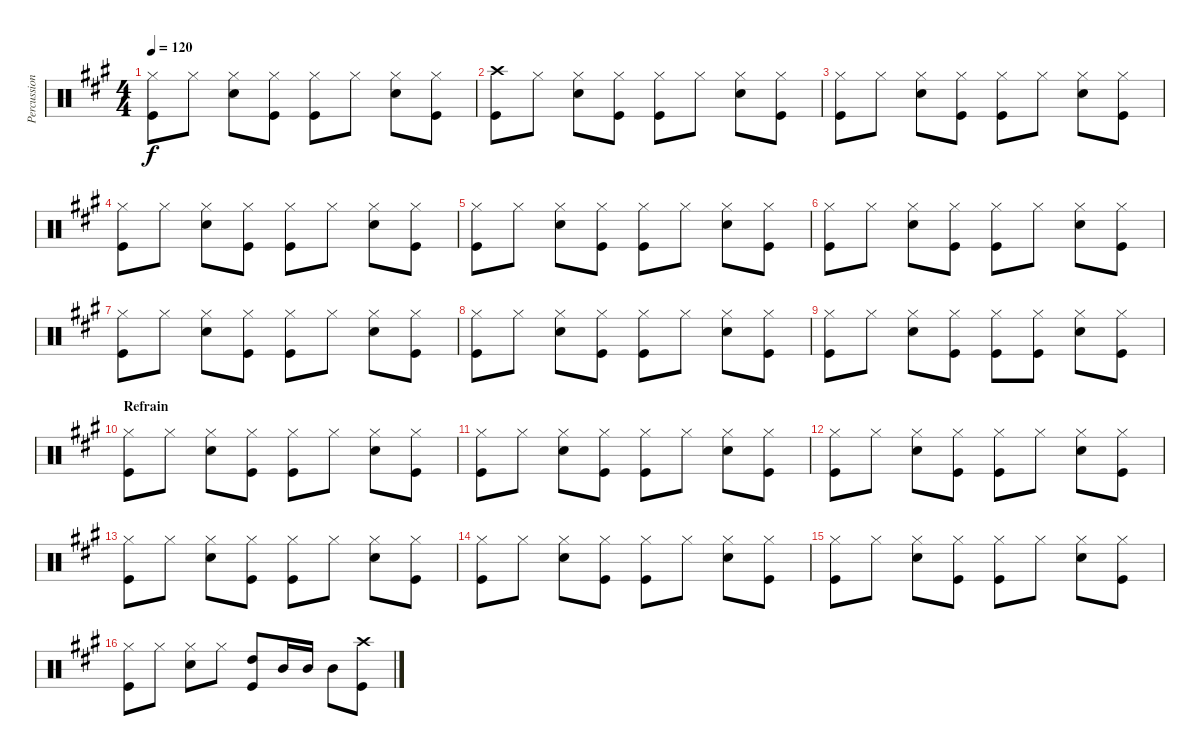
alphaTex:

\track ("Percussion" "Percussion") {instrument percussion}
\staff {score}
\articulation defaults
\ts (4 4)
\tempo 120
\clef neutral
\ks a
("Hi-Hat (closed)" "Kick (hit)").8{dy f} "Hi-Hat (closed)".8 ("Hi-Hat (closed)" "Snare (hit) 2").8 ("Hi-Hat (closed)" "Kick (hit)").8 ("Hi-Hat (closed)" "Kick (hit)").8 "Hi-Hat (closed)".8 ("Hi-Hat (closed)" "Snare (hit) 2").8 ("Hi-Hat (closed)" "Kick (hit)").8 |
("Crash high (hit)" "Kick (hit)").8 "Hi-Hat (closed)".8 ("Hi-Hat (closed)" "Snare (hit) 2").8 ("Hi-Hat (closed)" "Kick (hit)").8 ("Hi-Hat (closed)" "Kick (hit)").8 "Hi-Hat (closed)".8 ("Hi-Hat (closed)" "Snare (hit) 2").8 ("Hi-Hat (closed)" "Kick (hit)").8 |
("Hi-Hat (closed)" "Kick (hit)").8 "Hi-Hat (closed)".8 ("Hi-Hat (closed)" "Snare (hit) 2").8 ("Hi-Hat (closed)" "Kick (hit)").8 ("Hi-Hat (closed)" "Kick (hit)").8 "Hi-Hat (closed)".8 ("Hi-Hat (closed)" "Snare (hit) 2").8 ("Hi-Hat (closed)" "Kick (hit)").8 |
("Hi-Hat (closed)" "Kick (hit)").8 "Hi-Hat (closed)".8 ("Hi-Hat (closed)" "Snare (hit) 2").8 ("Hi-Hat (closed)" "Kick (hit)").8 ("Hi-Hat (closed)" "Kick (hit)").8 "Hi-Hat (closed)".8 ("Hi-Hat (closed)" "Snare (hit) 2").8 ("Hi-Hat (closed)" "Kick (hit)").8 |
("Hi-Hat (closed)" "Kick (hit)").8 "Hi-Hat (closed)".8 ("Hi-Hat (closed)" "Snare (hit) 2").8 ("Hi-Hat (closed)" "Kick (hit)").8 ("Hi-Hat (closed)" "Kick (hit)").8 "Hi-Hat (closed)".8 ("Hi-Hat (closed)" "Snare (hit) 2").8 ("Hi-Hat (closed)" "Kick (hit)").8 |
("Hi-Hat (closed)" "Kick (hit)").8 "Hi-Hat (closed)".8 ("Hi-Hat (closed)" "Snare (hit) 2").8 ("Hi-Hat (closed)" "Kick (hit)").8 ("Hi-Hat (closed)" "Kick (hit)").8 "Hi-Hat (closed)".8 ("Hi-Hat (closed)" "Snare (hit) 2").8 ("Hi-Hat (closed)" "Kick (hit)").8 |
("Hi-Hat (closed)" "Kick (hit)").8 "Hi-Hat (closed)".8 ("Hi-Hat (closed)" "Snare (hit) 2").8 ("Hi-Hat (closed)" "Kick (hit)").8 ("Hi-Hat (closed)" "Kick (hit)").8 "Hi-Hat (closed)".8 ("Hi-Hat (closed)" "Snare (hit) 2").8 ("Hi-Hat (closed)" "Kick (hit)").8 |
("Hi-Hat (closed)" "Kick (hit)").8 "Hi-Hat (closed)".8 ("Hi-Hat (closed)" "Snare (hit) 2").8 ("Hi-Hat (closed)" "Kick (hit)").8 ("Hi-Hat (closed)" "Kick (hit)").8 "Hi-Hat (closed)".8 ("Hi-Hat (closed)" "Snare (hit) 2").8 ("Hi-Hat (closed)" "Kick (hit)").8 |
("Hi-Hat (closed)" "Kick (hit)").8 "Hi-Hat (closed)".8 ("Hi-Hat (closed)" "Snare (hit) 2").8 ("Hi-Hat (closed)" "Kick (hit)").8 ("Hi-Hat (closed)" "Kick (hit)").8 ("Hi-Hat (closed)" "Kick (hit)").8 ("Hi-Hat (closed)" "Snare (hit) 2").8 ("Hi-Hat (closed)" "Kick (hit)").8 |
\section ("" "Refrain")
("Hi-Hat (closed)" "Kick (hit)").8 "Hi-Hat (closed)".8 ("Hi-Hat (closed)" "Snare (hit) 2").8 ("Hi-Hat (closed)" "Kick (hit)").8 ("Hi-Hat (closed)" "Kick (hit)").8 "Hi-Hat (closed)".8 ("Hi-Hat (closed)" "Snare (hit) 2").8 ("Hi-Hat (closed)" "Kick (hit)").8 |
("Hi-Hat (closed)" "Kick (hit)").8 "Hi-Hat (closed)".8 ("Hi-Hat (closed)" "Snare (hit) 2").8 ("Hi-Hat (closed)" "Kick (hit)").8 ("Hi-Hat (closed)" "Kick (hit)").8 "Hi-Hat (closed)".8 ("Hi-Hat (closed)" "Snare (hit) 2").8 ("Hi-Hat (closed)" "Kick (hit)").8 |
("Hi-Hat (closed)" "Kick (hit)").8 "Hi-Hat (closed)".8 ("Hi-Hat (closed)" "Snare (hit) 2").8 ("Hi-Hat (closed)" "Kick (hit)").8 ("Hi-Hat (closed)" "Kick (hit)").8 "Hi-Hat (closed)".8 ("Hi-Hat (closed)" "Snare (hit) 2").8 ("Hi-Hat (closed)" "Kick (hit)").8 |
("Hi-Hat (closed)" "Kick (hit)").8 "Hi-Hat (closed)".8 ("Hi-Hat (closed)" "Snare (hit) 2").8 ("Hi-Hat (closed)" "Kick (hit)").8 ("Hi-Hat (closed)" "Kick (hit)").8 "Hi-Hat (closed)".8 ("Hi-Hat (closed)" "Snare (hit) 2").8 ("Hi-Hat (closed)" "Kick (hit)").8 |
("Hi-Hat (closed)" "Kick (hit)").8 "Hi-Hat (closed)".8 ("Hi-Hat (closed)" "Snare (hit) 2").8 ("Hi-Hat (closed)" "Kick (hit)").8 ("Hi-Hat (closed)" "Kick (hit)").8 "Hi-Hat (closed)".8 ("Hi-Hat (closed)" "Snare (hit) 2").8 ("Hi-Hat (closed)" "Kick (hit)").8 |
("Hi-Hat (closed)" "Kick (hit)").8 "Hi-Hat (closed)".8 ("Hi-Hat (closed)" "Snare (hit) 2").8 ("Hi-Hat (closed)" "Kick (hit)").8 ("Hi-Hat (closed)" "Kick (hit)").8 "Hi-Hat (closed)".8 ("Hi-Hat (closed)" "Snare (hit) 2").8 ("Hi-Hat (closed)" "Kick (hit)").8 |
("Hi-Hat (closed)" "Kick (hit)").8 "Hi-Hat (closed)".8 ("Hi-Hat (closed)" "Snare (hit) 2").8 "Hi-Hat (closed)".8 ("High Tom (hit)" "Kick (hit)").8 "Mid Tom (hit)".16 "Mid Tom (hit)".16 "Mid Tom (hit)".8 ("Crash high (hit)" "Kick (hit)").8
